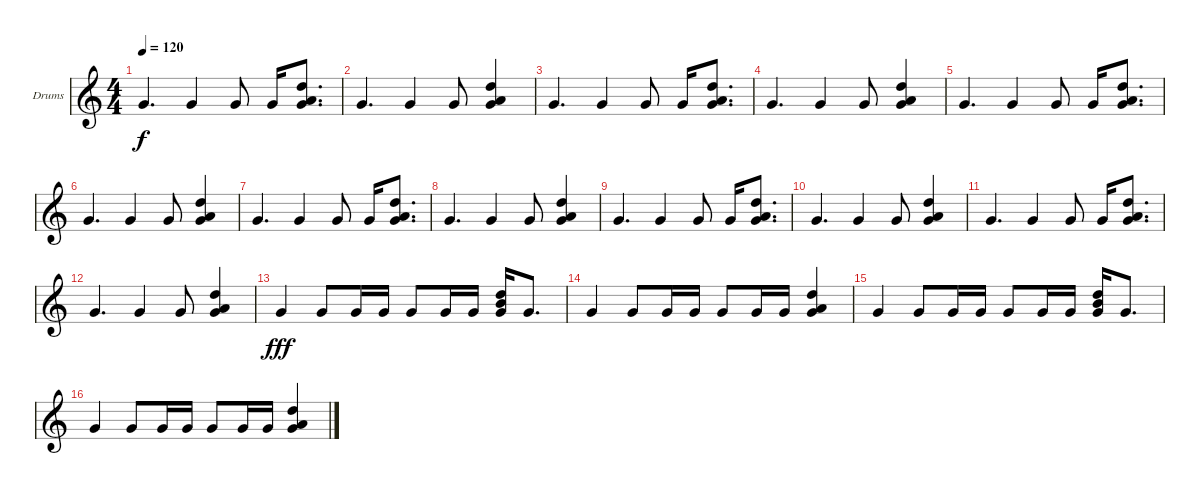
\defaultSystemsLayout 4
\bracketExtendMode groupsimilarinstruments
\firstSystemTrackNameOrientation horizontal
\otherSystemsTrackNameOrientation horizontal
\track ("Drumkit" "Drums") {instrument percussion}
\staff {score}
\articulation defaults
\ts (4 4)
\tempo 120
\clef g2
\ks c "Very Low Tom (hit)".4{d dy f} "Very Low Tom (hit)".4 "Very Low Tom (hit)".8 "Very Low Tom (hit)".16
("Very Low Tom (hit)" "High Tom (hit)" "Low Tom (hit)").8{d} |
"Very Low Tom (hit)".4{d} "Very Low Tom (hit)".4 "Very Low Tom (hit)".8 ("Very Low Tom (hit)" "High Tom (hit)" "Low Tom (hit)").4 |
"Very Low Tom (hit)".4{d} "Very Low Tom (hit)".4 "Very Low Tom (hit)".8 "Very Low Tom (hit)".16 ("Very Low Tom (hit)" "High Tom (hit)" "Low Tom (hit)").8{d} |
"Very Low Tom (hit)".4{d} "Very Low Tom (hit)".4 "Very Low Tom (hit)".8 ("Very Low Tom (hit)" "High Tom (hit)" "Low Tom (hit)").4 |
"Very Low Tom (hit)".4{d} "Very Low Tom (hit)".4 "Very Low Tom (hit)".8 "Very Low Tom (hit)".16 ("Very Low Tom (hit)" "High Tom (hit)" "Low Tom (hit)").8{d} |
"Very Low Tom (hit)".4{d} "Very Low Tom (hit)".4 "Very Low Tom (hit)".8 ("Very Low Tom (hit)" "High Tom (hit)" "Low Tom (hit)").4 |
"Very Low Tom (hit)".4{d} "Very Low Tom (hit)".4 "Very Low Tom (hit)".8 "Very Low Tom (hit)".16 ("Very Low Tom (hit)" "High Tom (hit)" "Low Tom (hit)").8{d} |
"Very Low Tom (hit)".4{d} "Very Low Tom (hit)".4 "Very Low Tom (hit)".8 ("Very Low Tom (hit)" "High Tom (hit)" "Low Tom (hit)").4 |
"Very Low Tom (hit)".4{d} "Very Low Tom (hit)".4 "Very Low Tom (hit)".8 "Very Low Tom (hit)".16 ("Very Low Tom (hit)" "High Tom (hit)" "Low Tom (hit)").8{d} |
"Very Low Tom (hit)".4{d} "Very Low Tom (hit)".4 "Very Low Tom (hit)".8 ("Very Low Tom (hit)" "High Tom (hit)" "Low Tom (hit)").4 |
"Very Low Tom (hit)".4{d} "Very Low Tom (hit)".4 "Very Low Tom (hit)".8 "Very Low Tom (hit)".16 ("Very Low Tom (hit)" "High Tom (hit)" "Low Tom (hit)").8{d} |
"Very Low Tom (hit)".4{d} "Very Low Tom (hit)".4 "Very Low Tom (hit)".8 ("Very Low Tom (hit)" "High Tom (hit)" "Low Tom (hit)").4 |
"Very Low Tom (hit)".4{dy fff} "Very Low Tom (hit)".8 "Very Low Tom (hit)".16 "Very Low Tom (hit)".16 "Very Low Tom (hit)".8 "Very Low Tom (hit)".16 "Very Low Tom (hit)".16 ("Very Low Tom (hit)" "High Tom (hit)" "Mid Tom (hit)").16 "Very Low Tom (hit)".8{d} |
"Very Low Tom (hit)".4 "Very Low Tom (hit)".8 "Very Low Tom (hit)".16 "Very Low Tom (hit)".16 "Very Low Tom (hit)".8 "Very Low Tom (hit)".16 "Very Low Tom (hit)".16 ("Very Low Tom (hit)" "Low Tom (hit)" "High Tom (hit)").4 |
"Very Low Tom (hit)".4 "Very Low Tom (hit)".8 "Very Low Tom (hit)".16 "Very Low Tom (hit)".16 "Very Low Tom (hit)".8 "Very Low Tom (hit)".16 "Very Low Tom (hit)".16 ("Very Low Tom (hit)" "High Tom (hit)" "Mid Tom (hit)").16 "Very Low Tom (hit)".8{d} |
"Very Low Tom (hit)".4 "Very Low Tom (hit)".8 "Very Low Tom (hit)".16 "Very Low Tom (hit)".16 "Very Low Tom (hit)".8 "Very Low Tom (hit)".16 "Very Low Tom (hit)".16 ("Very Low Tom (hit)" "Low Tom (hit)" "High Tom (hit)").4
